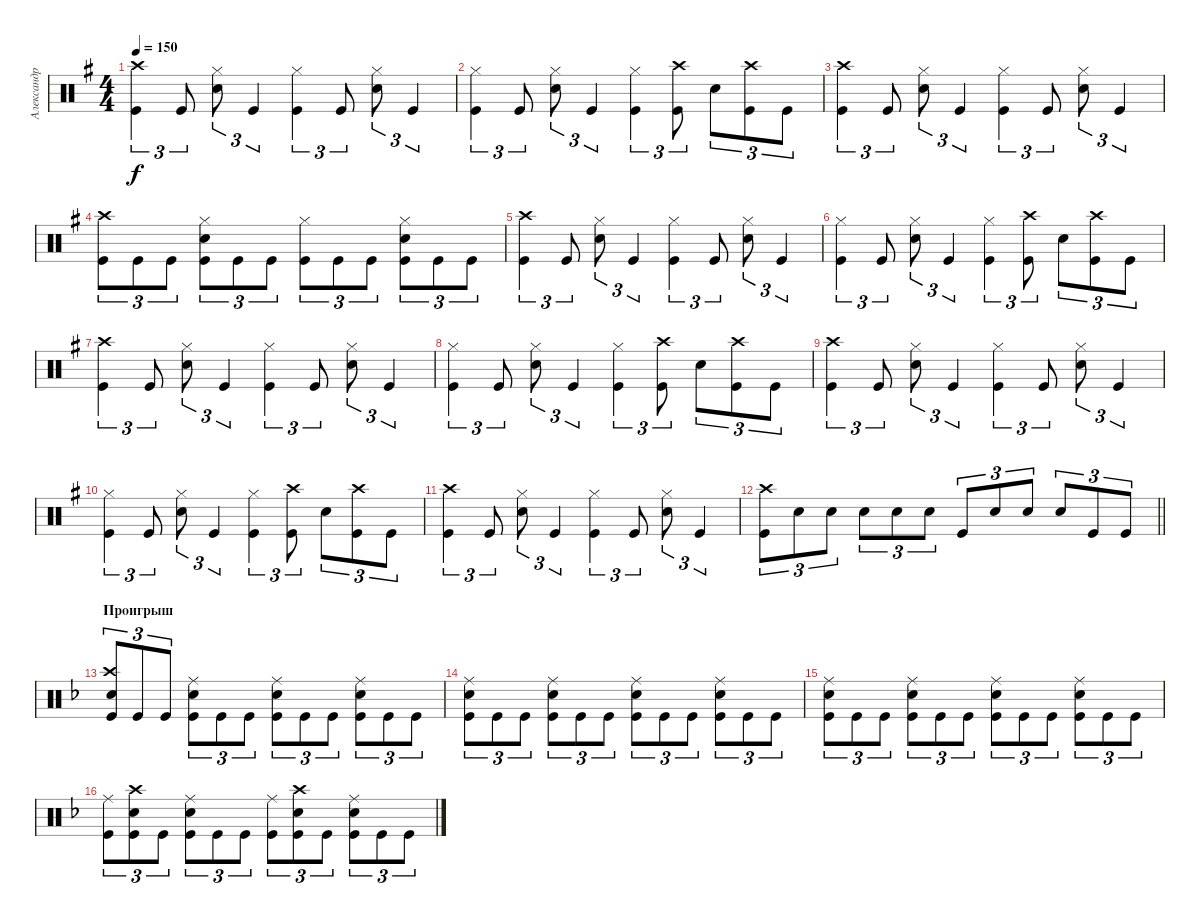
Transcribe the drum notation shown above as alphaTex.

\track ("Александр Манякин" "Александр ") {instrument percussion}
\staff {score}
\articulation defaults
\ts (4 4)
\tempo 150
\clef neutral
\ks eminor
("Kick (hit)" "Crash high (hit)").4{tu (3 2) dy f} "Kick (hit)".8{tu (3 2)} ("Snare (hit) 2" "Hi-Hat (closed)").8{tu (3 2)} "Kick (hit)".4{tu (3 2)} ("Kick (hit)" "Hi-Hat (closed)").4{tu (3 2)} "Kick (hit)".8{tu (3 2)} ("Snare (hit) 2" "Hi-Hat (closed)").8{tu (3 2)} "Kick (hit)".4{tu (3 2)} |
("Kick (hit)" "Hi-Hat (closed)").4{tu (3 2)} "Kick (hit)".8{tu (3 2)} ("Snare (hit) 2" "Hi-Hat (closed)").8{tu (3 2)} "Kick (hit)".4{tu (3 2)} ("Kick (hit)" "Hi-Hat (closed)").4{tu (3 2)} ("Kick (hit)" "Crash high (hit)").8{tu (3 2)} "Snare (hit) 2".8{tu (3 2)} ("Kick (hit)" "Crash high (hit)").8{tu (3 2)} "Kick (hit)".8{tu (3 2)} |
("Kick (hit)" "Crash high (hit)").4{tu (3 2)} "Kick (hit)".8{tu (3 2)} ("Snare (hit) 2" "Hi-Hat (closed)").8{tu (3 2)} "Kick (hit)".4{tu (3 2)} ("Kick (hit)" "Hi-Hat (closed)").4{tu (3 2)} "Kick (hit)".8{tu (3 2)} ("Snare (hit) 2" "Hi-Hat (closed)").8{tu (3 2)} "Kick (hit)".4{tu (3 2)} |
("Kick (hit)" "Crash high (hit)").8{tu (3 2)} "Kick (hit)".8{tu (3 2)} "Kick (hit)".8{tu (3 2)} ("Snare (hit) 2" "Hi-Hat (closed)" "Kick (hit)").8{tu (3 2)} "Kick (hit)".8{tu (3 2)} "Kick (hit)".8{tu (3 2)} ("Kick (hit)" "Hi-Hat (closed)").8{tu (3 2)} "Kick (hit)".8{tu (3 2)} "Kick (hit)".8{tu (3 2)} ("Snare (hit) 2" "Hi-Hat (closed)" "Kick (hit)").8{tu (3 2)} "Kick (hit)".8{tu (3 2)} "Kick (hit)".8{tu (3 2)} |
("Kick (hit)" "Crash high (hit)").4{tu (3 2)} "Kick (hit)".8{tu (3 2)} ("Snare (hit) 2" "Hi-Hat (closed)").8{tu (3 2)} "Kick (hit)".4{tu (3 2)} ("Kick (hit)" "Hi-Hat (closed)").4{tu (3 2)} "Kick (hit)".8{tu (3 2)} ("Snare (hit) 2" "Hi-Hat (closed)").8{tu (3 2)} "Kick (hit)".4{tu (3 2)} |
("Kick (hit)" "Hi-Hat (closed)").4{tu (3 2)} "Kick (hit)".8{tu (3 2)} ("Snare (hit) 2" "Hi-Hat (closed)").8{tu (3 2)} "Kick (hit)".4{tu (3 2)} ("Kick (hit)" "Hi-Hat (closed)").4{tu (3 2)} ("Kick (hit)" "Crash high (hit)").8{tu (3 2)} "Snare (hit) 2".8{tu (3 2)} ("Kick (hit)" "Crash high (hit)").8{tu (3 2)} "Kick (hit)".8{tu (3 2)} |
("Kick (hit)" "Crash high (hit)").4{tu (3 2)} "Kick (hit)".8{tu (3 2)} ("Snare (hit) 2" "Hi-Hat (closed)").8{tu (3 2)} "Kick (hit)".4{tu (3 2)} ("Kick (hit)" "Hi-Hat (closed)").4{tu (3 2)} "Kick (hit)".8{tu (3 2)} ("Snare (hit) 2" "Hi-Hat (closed)").8{tu (3 2)} "Kick (hit)".4{tu (3 2)} |
("Kick (hit)" "Hi-Hat (closed)").4{tu (3 2)} "Kick (hit)".8{tu (3 2)} ("Snare (hit) 2" "Hi-Hat (closed)").8{tu (3 2)} "Kick (hit)".4{tu (3 2)} ("Kick (hit)" "Hi-Hat (closed)").4{tu (3 2)} ("Kick (hit)" "Crash high (hit)").8{tu (3 2)} "Snare (hit) 2".8{tu (3 2)} ("Kick (hit)" "Crash high (hit)").8{tu (3 2)} "Kick (hit)".8{tu (3 2)} |
("Kick (hit)" "Crash high (hit)").4{tu (3 2)} "Kick (hit)".8{tu (3 2)} ("Snare (hit) 2" "Hi-Hat (closed)").8{tu (3 2)} "Kick (hit)".4{tu (3 2)} ("Kick (hit)" "Hi-Hat (closed)").4{tu (3 2)} "Kick (hit)".8{tu (3 2)} ("Snare (hit) 2" "Hi-Hat (closed)").8{tu (3 2)} "Kick (hit)".4{tu (3 2)} |
("Kick (hit)" "Hi-Hat (closed)").4{tu (3 2)} "Kick (hit)".8{tu (3 2)} ("Snare (hit) 2" "Hi-Hat (closed)").8{tu (3 2)} "Kick (hit)".4{tu (3 2)} ("Kick (hit)" "Hi-Hat (closed)").4{tu (3 2)} ("Kick (hit)" "Crash high (hit)").8{tu (3 2)} "Snare (hit) 2".8{tu (3 2)} ("Kick (hit)" "Crash high (hit)").8{tu (3 2)} "Kick (hit)".8{tu (3 2)} |
("Kick (hit)" "Crash high (hit)").4{tu (3 2)} "Kick (hit)".8{tu (3 2)} ("Snare (hit) 2" "Hi-Hat (closed)").8{tu (3 2)} "Kick (hit)".4{tu (3 2)} ("Kick (hit)" "Hi-Hat (closed)").4{tu (3 2)} "Kick (hit)".8{tu (3 2)} ("Snare (hit) 2" "Hi-Hat (closed)").8{tu (3 2)} "Kick (hit)".4{tu (3 2)} |
\barLineRight lightlight
("Kick (hit)" "Crash high (hit)").8{tu (3 2)} "Snare (hit) 2".8{tu (3 2)} "Snare (hit) 2".8{tu (3 2)} "Snare (hit) 2".8{tu (3 2)} "Snare (hit) 2".8{tu (3 2)} "Snare (hit) 2".8{tu (3 2)} "Kick (hit)".8{tu (3 2)} "Snare (hit) 2".8{tu (3 2)} "Snare (hit) 2".8{tu (3 2)} "Snare (hit) 2".8{tu (3 2)} "Kick (hit)".8{tu (3 2)} "Kick (hit)".8{tu (3 2)} |
\section ("" "Проигрыш")
\ks dminor
("Kick (hit)" "Snare (hit) 2" "Crash high (hit)").8{tu (3 2)} "Kick (hit)".8{tu (3 2)} "Kick (hit)".8{tu (3 2)} ("Snare (hit) 2" "Kick (hit)" "Ride (middle)").8{tu (3 2)} "Kick (hit)".8{tu (3 2)} "Kick (hit)".8{tu (3 2)} ("Kick (hit)" "Ride (middle)" "Snare (hit) 2").8{tu (3 2)} "Kick (hit)".8{tu (3 2)} "Kick (hit)".8{tu (3 2)} ("Kick (hit)" "Snare (hit) 2" "Ride (middle)").8{tu (3 2)} "Kick (hit)".8{tu (3 2)} "Kick (hit)".8{tu (3 2)} |
("Kick (hit)" "Ride (middle)" "Snare (hit) 2").8{tu (3 2)} "Kick (hit)".8{tu (3 2)} "Kick (hit)".8{tu (3 2)} ("Snare (hit) 2" "Kick (hit)" "Ride (middle)").8{tu (3 2)} "Kick (hit)".8{tu (3 2)} "Kick (hit)".8{tu (3 2)} ("Kick (hit)" "Ride (middle)" "Snare (hit) 2").8{tu (3 2)} "Kick (hit)".8{tu (3 2)} "Kick (hit)".8{tu (3 2)} ("Kick (hit)" "Snare (hit) 2" "Ride (middle)").8{tu (3 2)} "Kick (hit)".8{tu (3 2)} "Kick (hit)".8{tu (3 2)} |
("Kick (hit)" "Ride (middle)" "Snare (hit) 2").8{tu (3 2)} "Kick (hit)".8{tu (3 2)} "Kick (hit)".8{tu (3 2)} ("Snare (hit) 2" "Kick (hit)" "Ride (middle)").8{tu (3 2)} "Kick (hit)".8{tu (3 2)} "Kick (hit)".8{tu (3 2)} ("Kick (hit)" "Ride (middle)" "Snare (hit) 2").8{tu (3 2)} "Kick (hit)".8{tu (3 2)} "Kick (hit)".8{tu (3 2)} ("Kick (hit)" "Snare (hit) 2" "Ride (middle)").8{tu (3 2)} "Kick (hit)".8{tu (3 2)} "Kick (hit)".8{tu (3 2)} |
("Kick (hit)" "Ride (middle)").8{tu (3 2)} ("Kick (hit)" "Snare (hit) 2" "Crash high (hit)").8{tu (3 2)} "Kick (hit)".8{tu (3 2)} ("Snare (hit) 2" "Kick (hit)" "Ride (middle)").8{tu (3 2)} "Kick (hit)".8{tu (3 2)} "Kick (hit)".8{tu (3 2)} ("Kick (hit)" "Ride (middle)").8{tu (3 2)} ("Kick (hit)" "Snare (hit) 2" "Crash high (hit)").8{tu (3 2)} "Kick (hit)".8{tu (3 2)} ("Kick (hit)" "Snare (hit) 2" "Ride (middle)").8{tu (3 2)} "Kick (hit)".8{tu (3 2)} "Kick (hit)".8{tu (3 2)}
